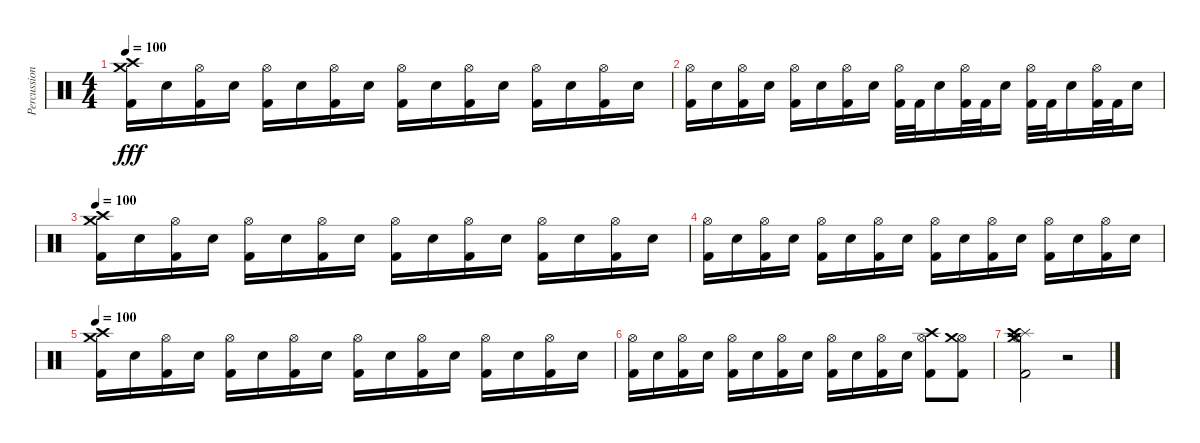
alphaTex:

\track ("Percussion" "Percussion") {instrument percussion}
\staff
\articulation defaults
\ts (4 4)
\tempo 100
\clef neutral
\ks c
("Crash high (hit)" "Crash medium (hit)" "Kick (hit) 2").16{dy fff} "Snare (hit) 2".16 ("Hi-Hat (open)" "Kick (hit) 2").16 "Snare (hit) 2".16 ("Hi-Hat (open)" "Kick (hit) 2").16 "Snare (hit) 2".16 ("Hi-Hat (open)" "Kick (hit) 2").16 "Snare (hit) 2".16 ("Hi-Hat (open)" "Kick (hit) 2").16 "Snare (hit) 2".16 ("Hi-Hat (open)" "Kick (hit) 2").16 "Snare (hit) 2".16 ("Hi-Hat (open)" "Kick (hit) 2").16 "Snare (hit) 2".16 ("Hi-Hat (open)" "Kick (hit) 2").16 "Snare (hit) 2".16 |
("Hi-Hat (open)" "Kick (hit) 2").16 "Snare (hit) 2".16 ("Hi-Hat (open)" "Kick (hit) 2").16 "Snare (hit) 2".16 ("Hi-Hat (open)" "Kick (hit) 2").16 "Snare (hit) 2".16 ("Hi-Hat (open)" "Kick (hit) 2").16 "Snare (hit) 2".16 ("Hi-Hat (open)" "Kick (hit) 2").32 "Kick (hit) 2".32 "Snare (hit) 2".16 ("Hi-Hat (open)" "Kick (hit) 2").32 "Kick (hit) 2".32 "Snare (hit) 2".16 ("Hi-Hat (open)" "Kick (hit) 2").32 "Kick (hit) 2".32 "Snare (hit) 2".16 ("Hi-Hat (open)" "Kick (hit) 2").32 "Kick (hit) 2".32 "Snare (hit) 2".16 |
\tempo 100
("Crash high (hit)" "Crash medium (hit)" "Kick (hit) 2").16 "Snare (hit) 2".16 ("Hi-Hat (open)" "Kick (hit) 2").16 "Snare (hit) 2".16 ("Hi-Hat (open)" "Kick (hit) 2").16 "Snare (hit) 2".16 ("Hi-Hat (open)" "Kick (hit) 2").16 "Snare (hit) 2".16 ("Hi-Hat (open)" "Kick (hit) 2").16 "Snare (hit) 2".16 ("Hi-Hat (open)" "Kick (hit) 2").16 "Snare (hit) 2".16 ("Hi-Hat (open)" "Kick (hit) 2").16 "Snare (hit) 2".16 ("Hi-Hat (open)" "Kick (hit) 2").16 "Snare (hit) 2".16 |
("Hi-Hat (open)" "Kick (hit) 2").16 "Snare (hit) 2".16 ("Hi-Hat (open)" "Kick (hit) 2").16 "Snare (hit) 2".16 ("Hi-Hat (open)" "Kick (hit) 2").16 "Snare (hit) 2".16 ("Hi-Hat (open)" "Kick (hit) 2").16 "Snare (hit) 2".16 ("Hi-Hat (open)" "Kick (hit) 2").16 "Snare (hit) 2".16 ("Hi-Hat (open)" "Kick (hit) 2").16 "Snare (hit) 2".16 ("Hi-Hat (open)" "Kick (hit) 2").16 "Snare (hit) 2".16 ("Hi-Hat (open)" "Kick (hit) 2").16 "Snare (hit) 2".16 |
\tempo 100
("Crash high (hit)" "Crash medium (hit)" "Kick (hit) 2").16 "Snare (hit) 2".16 ("Hi-Hat (open)" "Kick (hit) 2").16 "Snare (hit) 2".16 ("Hi-Hat (open)" "Kick (hit) 2").16 "Snare (hit) 2".16 ("Hi-Hat (open)" "Kick (hit) 2").16 "Snare (hit) 2".16 ("Hi-Hat (open)" "Kick (hit) 2").16 "Snare (hit) 2".16 ("Hi-Hat (open)" "Kick (hit) 2").16 "Snare (hit) 2".16 ("Hi-Hat (open)" "Kick (hit) 2").16 "Snare (hit) 2".16 ("Hi-Hat (open)" "Kick (hit) 2").16 "Snare (hit) 2".16 |
("Hi-Hat (open)" "Kick (hit) 2").16 "Snare (hit) 2".16 ("Hi-Hat (open)" "Kick (hit) 2").16 "Snare (hit) 2".16 ("Hi-Hat (open)" "Kick (hit) 2").16 "Snare (hit) 2".16 ("Hi-Hat (open)" "Kick (hit) 2").16 "Snare (hit) 2".16 ("Hi-Hat (open)" "Kick (hit) 2").16 "Snare (hit) 2".16 ("Hi-Hat (open)" "Kick (hit) 2").16 "Snare (hit) 2".16 ("Crash high (hit)" "Hi-Hat (open)" "Kick (hit) 2").8 ("Hi-Hat (open)" "Crash medium (hit)" "Kick (hit) 2").8 |
("Hi-Hat (open)" "Splash (hit)" "Crash high (hit)" "Crash medium (hit)" "Kick (hit) 2").2 r.2
